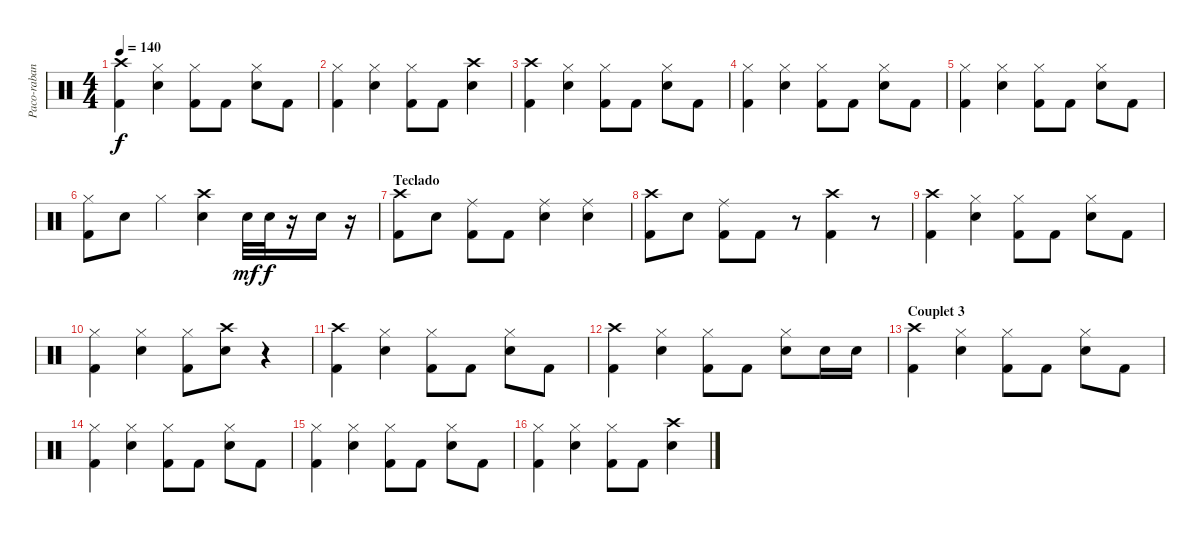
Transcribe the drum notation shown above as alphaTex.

\track ("Paco-rabane" "Paco-raban") {instrument percussion}
\staff {score}
\articulation defaults
\ts (4 4)
\tempo 140
\clef neutral
\ks c
("Crash high (hit)" "Kick (hit) 2").4{dy f} ("Hi-Hat (closed)" "Snare (hit) 2").4 ("Hi-Hat (closed)" "Kick (hit) 2").8 "Kick (hit) 2".8 ("Hi-Hat (closed)" "Snare (hit) 2").8 "Kick (hit) 2".8 |
("Hi-Hat (closed)" "Kick (hit) 2").4 ("Hi-Hat (closed)" "Snare (hit) 2").4 ("Hi-Hat (closed)" "Kick (hit) 2").8 "Kick (hit) 2".8 ("Crash high (hit)" "Snare (hit) 2").4 |
("Crash high (hit)" "Kick (hit) 2").4 ("Hi-Hat (closed)" "Snare (hit) 2").4 ("Hi-Hat (closed)" "Kick (hit) 2").8 "Kick (hit) 2".8 ("Hi-Hat (closed)" "Snare (hit) 2").8 "Kick (hit) 2".8 |
("Hi-Hat (closed)" "Kick (hit) 2").4 ("Hi-Hat (closed)" "Snare (hit) 2").4 ("Hi-Hat (closed)" "Kick (hit) 2").8 "Kick (hit) 2".8 ("Hi-Hat (closed)" "Snare (hit) 2").8 "Kick (hit) 2".8 |
("Hi-Hat (closed)" "Kick (hit) 2").4 ("Hi-Hat (closed)" "Snare (hit) 2").4 ("Hi-Hat (closed)" "Kick (hit) 2").8 "Kick (hit) 2".8 ("Hi-Hat (closed)" "Snare (hit) 2").8 "Kick (hit) 2".8 |
("Hi-Hat (closed)" "Kick (hit) 2").8 "Snare (hit) 2".8 "Hi-Hat (closed)".4 ("Crash high (hit)" "Snare (hit) 2").4 "Snare (hit) 2".32{dy mf} "Snare (hit) 2".32{dy f} r.16 "Snare (hit) 2".16 r.16 |
\section ("" "Teclado")
("Crash high (hit)" "Kick (hit) 2").8 "Snare (hit) 2".8 ("Ride (middle)" "Kick (hit) 2").8 "Kick (hit) 2".8 ("Ride (middle)" "Snare (hit) 2").4 ("Ride (middle)" "Snare (hit) 2").4 |
("Crash high (hit)" "Kick (hit) 2").8 "Snare (hit) 2".8 ("Ride (middle)" "Kick (hit) 2").8 "Kick (hit) 2".8 r.8 ("Crash high (hit)" "Kick (hit) 2").4 r.8 |
("Crash high (hit)" "Kick (hit) 2").4 ("Hi-Hat (closed)" "Snare (hit) 2").4 ("Hi-Hat (closed)" "Kick (hit) 2").8 "Kick (hit) 2".8 ("Hi-Hat (closed)" "Snare (hit) 2").8 "Kick (hit) 2".8 |
("Hi-Hat (closed)" "Kick (hit) 2").4 ("Hi-Hat (closed)" "Snare (hit) 2").4 ("Hi-Hat (closed)" "Kick (hit) 2").8 ("Crash high (hit)" "Snare (hit) 2").8 r.4 |
("Crash high (hit)" "Kick (hit) 2").4 ("Hi-Hat (closed)" "Snare (hit) 2").4 ("Hi-Hat (closed)" "Kick (hit) 2").8 "Kick (hit) 2".8 ("Hi-Hat (closed)" "Snare (hit) 2").8 "Kick (hit) 2".8 |
("Crash high (hit)" "Kick (hit) 2").4 ("Hi-Hat (closed)" "Snare (hit) 2").4 ("Hi-Hat (closed)" "Kick (hit) 2").8 "Kick (hit) 2".8 ("Hi-Hat (closed)" "Snare (hit) 2").8 "Snare (hit) 2".16 "Snare (hit) 2".16 |
\section ("" "Couplet 3")
("Crash high (hit)" "Kick (hit) 2").4 ("Hi-Hat (closed)" "Snare (hit) 2").4 ("Hi-Hat (closed)" "Kick (hit) 2").8 "Kick (hit) 2".8 ("Hi-Hat (closed)" "Snare (hit) 2").8 "Kick (hit) 2".8 |
("Hi-Hat (closed)" "Kick (hit) 2").4 ("Hi-Hat (closed)" "Snare (hit) 2").4 ("Hi-Hat (closed)" "Kick (hit) 2").8 "Kick (hit) 2".8 ("Hi-Hat (closed)" "Snare (hit) 2").8 "Kick (hit) 2".8 |
("Hi-Hat (closed)" "Kick (hit) 2").4 ("Hi-Hat (closed)" "Snare (hit) 2").4 ("Hi-Hat (closed)" "Kick (hit) 2").8 "Kick (hit) 2".8 ("Hi-Hat (closed)" "Snare (hit) 2").8 "Kick (hit) 2".8 |
("Hi-Hat (closed)" "Kick (hit) 2").4 ("Hi-Hat (closed)" "Snare (hit) 2").4 ("Hi-Hat (closed)" "Kick (hit) 2").8 "Kick (hit) 2".8 ("Crash high (hit)" "Snare (hit) 2").4
